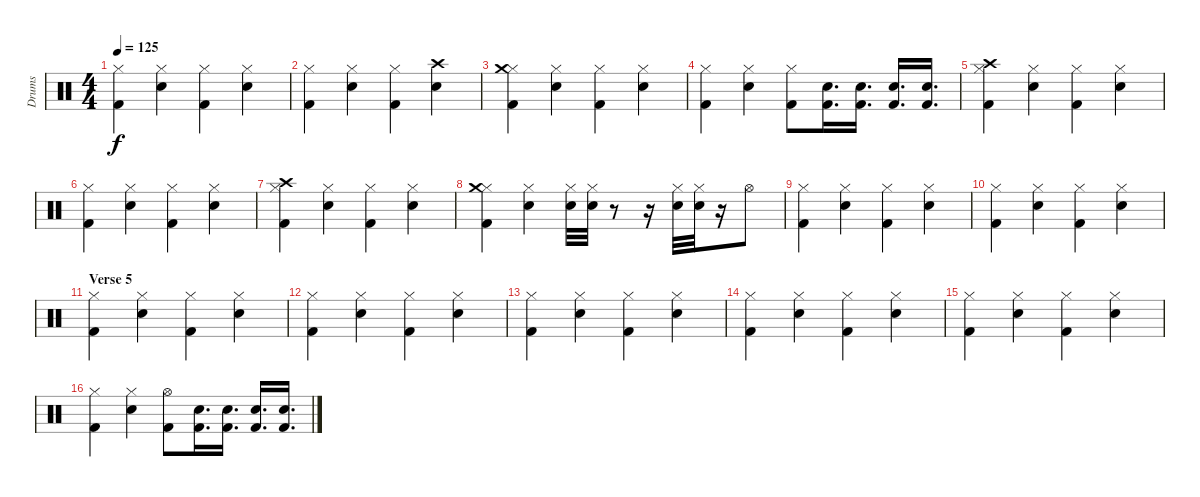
\track ("Drums" "Drums") {instrument percussion}
\staff {score}
\articulation defaults
\ts (4 4)
\tempo 125
\clef neutral
\ks c
("Hi-Hat (closed)" "Kick (hit) 2").4{dy f} ("Hi-Hat (closed)" "Electric Snare (hit)").4 ("Hi-Hat (closed)" "Kick (hit) 2").4 ("Hi-Hat (closed)" "Electric Snare (hit)").4 |
("Hi-Hat (closed)" "Kick (hit) 2").4 ("Hi-Hat (closed)" "Electric Snare (hit)").4 ("Hi-Hat (closed)" "Kick (hit) 2").4 ("Crash high (hit)" "Electric Snare (hit)").4 |
("Hi-Hat (closed)" "Crash medium (hit)" "Kick (hit) 2").4 ("Hi-Hat (closed)" "Electric Snare (hit)").4 ("Hi-Hat (closed)" "Kick (hit) 2").4 ("Hi-Hat (closed)" "Electric Snare (hit)").4 |
("Hi-Hat (closed)" "Kick (hit) 2").4 ("Hi-Hat (closed)" "Electric Snare (hit)").4 ("Hi-Hat (closed)" "Kick (hit) 2").8 ("Electric Snare (hit)" "Kick (hit) 2").16{d} ("Electric Snare (hit)" "Kick (hit) 2").16{d} ("Electric Snare (hit)" "Kick (hit) 2").16{d} ("Electric Snare (hit)" "Kick (hit) 2").16{d} |
("Hi-Hat (closed)" "Crash high (hit)" "Kick (hit) 2").4 ("Hi-Hat (closed)" "Electric Snare (hit)").4 ("Hi-Hat (closed)" "Kick (hit) 2").4 ("Hi-Hat (closed)" "Electric Snare (hit)").4 |
("Hi-Hat (closed)" "Kick (hit) 2").4 ("Hi-Hat (closed)" "Electric Snare (hit)").4 ("Hi-Hat (closed)" "Kick (hit) 2").4 ("Hi-Hat (closed)" "Electric Snare (hit)").4 |
("Hi-Hat (closed)" "Crash high (hit)" "Kick (hit) 2").4 ("Hi-Hat (closed)" "Electric Snare (hit)").4 ("Hi-Hat (closed)" "Kick (hit) 2").4 ("Hi-Hat (closed)" "Electric Snare (hit)").4 |
("Hi-Hat (closed)" "Crash medium (hit)" "Kick (hit) 2").4 ("Hi-Hat (closed)" "Electric Snare (hit)").4 ("Hi-Hat (closed)" "Electric Snare (hit)").32 ("Hi-Hat (closed)" "Electric Snare (hit)").32 r.8 r.16 ("Hi-Hat (closed)" "Electric Snare (hit)").32 ("Hi-Hat (closed)" "Electric Snare (hit)").32 r.16 "Hi-Hat (open)".8 |
("Hi-Hat (closed)" "Kick (hit) 2").4 ("Hi-Hat (closed)" "Electric Snare (hit)").4 ("Hi-Hat (closed)" "Kick (hit) 2").4 ("Hi-Hat (closed)" "Electric Snare (hit)").4 |
("Hi-Hat (closed)" "Kick (hit) 2").4 ("Hi-Hat (closed)" "Electric Snare (hit)").4 ("Hi-Hat (closed)" "Kick (hit) 2").4 ("Hi-Hat (closed)" "Electric Snare (hit)").4 |
\section ("" "Verse 5")
("Hi-Hat (closed)" "Kick (hit) 2").4 ("Hi-Hat (closed)" "Electric Snare (hit)").4 ("Hi-Hat (closed)" "Kick (hit) 2").4 ("Hi-Hat (closed)" "Electric Snare (hit)").4 |
("Hi-Hat (closed)" "Kick (hit) 2").4 ("Hi-Hat (closed)" "Electric Snare (hit)").4 ("Hi-Hat (closed)" "Kick (hit) 2").4 ("Hi-Hat (closed)" "Electric Snare (hit)").4 |
("Hi-Hat (closed)" "Kick (hit) 2").4 ("Hi-Hat (closed)" "Electric Snare (hit)").4 ("Hi-Hat (closed)" "Kick (hit) 2").4 ("Hi-Hat (closed)" "Electric Snare (hit)").4 |
("Hi-Hat (closed)" "Kick (hit) 2").4 ("Hi-Hat (closed)" "Electric Snare (hit)").4 ("Hi-Hat (closed)" "Kick (hit) 2").4 ("Hi-Hat (closed)" "Electric Snare (hit)").4 |
("Hi-Hat (closed)" "Kick (hit) 2").4 ("Hi-Hat (closed)" "Electric Snare (hit)").4 ("Hi-Hat (closed)" "Kick (hit) 2").4 ("Hi-Hat (closed)" "Electric Snare (hit)").4 |
("Hi-Hat (closed)" "Kick (hit) 2").4 ("Hi-Hat (closed)" "Electric Snare (hit)").4 ("Hi-Hat (open)" "Kick (hit) 2").8 ("Electric Snare (hit)" "Kick (hit) 2").16{d} ("Electric Snare (hit)" "Kick (hit) 2").16{d} ("Electric Snare (hit)" "Kick (hit) 2").16{d} ("Electric Snare (hit)" "Kick (hit) 2").16{d}
